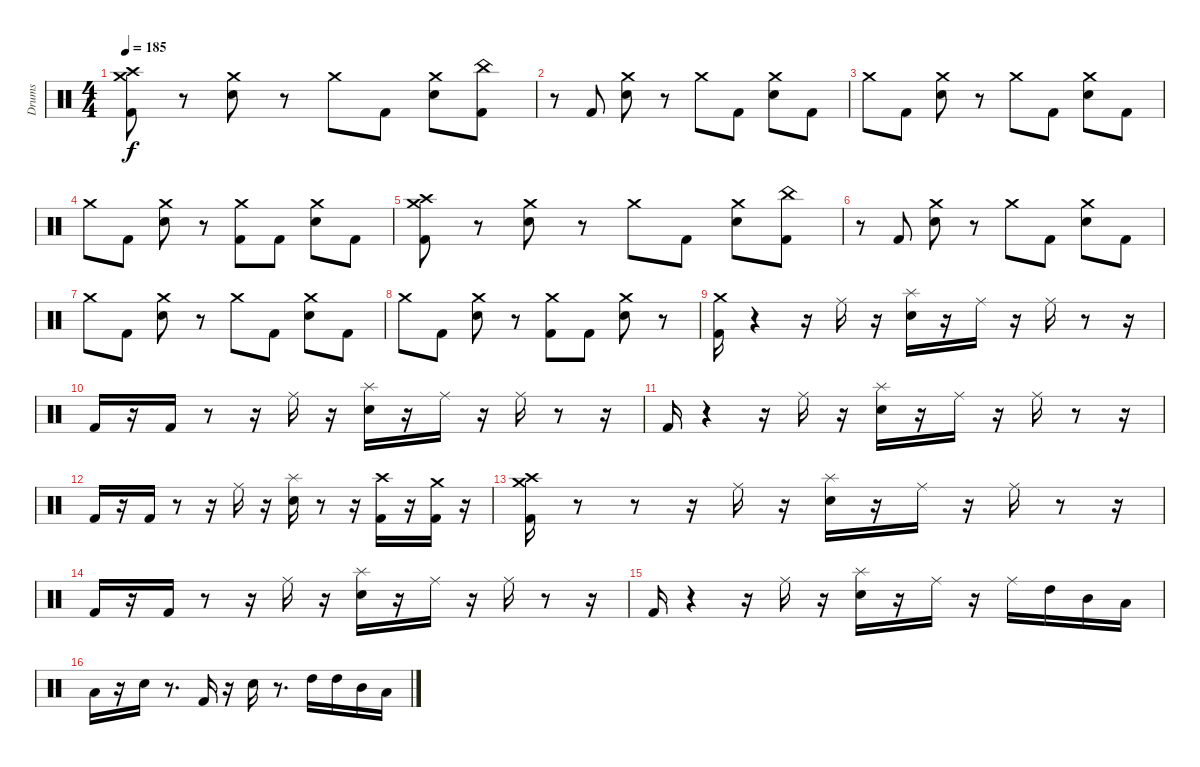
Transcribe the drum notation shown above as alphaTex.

\track ("Drums" "Drums") {instrument percussion}
\staff {score}
\articulation defaults
\ts (4 4)
\tempo 185
\clef neutral
\ks c
("Crash medium (hit)" "Crash high (hit)" "Kick (hit) 2").8{dy f} r.8 ("Crash medium (hit)" "Snare (hit) 2").8 r.8 "Crash medium (hit)".8 "Kick (hit) 2".8 ("Crash medium (hit)" "Snare (hit) 2").8 ("China (hit)" "Kick (hit) 2").8 |
r.8 "Kick (hit) 2".8 ("Crash medium (hit)" "Snare (hit) 2").8 r.8 "Crash medium (hit)".8 "Kick (hit) 2".8 ("Crash medium (hit)" "Snare (hit) 2").8 "Kick (hit) 2".8 |
"Crash medium (hit)".8 "Kick (hit) 2".8 ("Crash medium (hit)" "Snare (hit) 2").8 r.8 "Crash medium (hit)".8 "Kick (hit) 2".8 ("Crash medium (hit)" "Snare (hit) 2").8 "Kick (hit) 2".8 |
"Crash medium (hit)".8 "Kick (hit) 2".8 ("Crash medium (hit)" "Snare (hit) 2").8 r.8 ("Crash medium (hit)" "Kick (hit) 2").8 "Kick (hit) 2".8 ("Crash medium (hit)" "Snare (hit) 2").8 "Kick (hit) 2".8 |
("Crash medium (hit)" "Crash high (hit)" "Kick (hit) 2").8 r.8 ("Crash medium (hit)" "Snare (hit) 2").8 r.8 "Crash medium (hit)".8 "Kick (hit) 2".8 ("Crash medium (hit)" "Snare (hit) 2").8 ("China (hit)" "Kick (hit) 2").8 |
r.8 "Kick (hit) 2".8 ("Crash medium (hit)" "Snare (hit) 2").8 r.8 "Crash medium (hit)".8 "Kick (hit) 2".8 ("Crash medium (hit)" "Snare (hit) 2").8 "Kick (hit) 2".8 |
"Crash medium (hit)".8 "Kick (hit) 2".8 ("Crash medium (hit)" "Snare (hit) 2").8 r.8 "Crash medium (hit)".8 "Kick (hit) 2".8 ("Crash medium (hit)" "Snare (hit) 2").8 "Kick (hit) 2".8 |
"Crash medium (hit)".8 "Kick (hit) 2".8 ("Crash medium (hit)" "Snare (hit) 2").8 r.8 ("Crash medium (hit)" "Kick (hit) 2").8 "Kick (hit) 2".8 ("Crash medium (hit)" "Snare (hit) 2").8 r.8 |
("Crash medium (hit)" "Kick (hit) 2").16 r.4 r.16 "Ride (middle)".16 r.16 ("Splash (hit)" "Snare (hit) 2").16 r.16 "Ride (middle)".16 r.16 "Ride (middle)".16 r.8 r.16 |
"Kick (hit) 2".16 r.16 "Kick (hit) 2".16 r.8 r.16 "Ride (middle)".16 r.16 ("Splash (hit)" "Snare (hit) 2").16 r.16 "Ride (middle)".16 r.16 "Ride (middle)".16 r.8 r.16 |
"Kick (hit) 2".16 r.4 r.16 "Ride (middle)".16 r.16 ("Splash (hit)" "Snare (hit) 2").16 r.16 "Ride (middle)".16 r.16 "Ride (middle)".16 r.8 r.16 |
"Kick (hit) 2".16 r.16 "Kick (hit) 2".16 r.8 r.16 "Ride (middle)".16 r.16 ("Splash (hit)" "Snare (hit) 2").16 r.8 r.16 ("Crash high (hit)" "Kick (hit) 2").16 r.16 ("Crash medium (hit)" "Kick (hit) 2").16 r.16 |
("Crash medium (hit)" "Crash high (hit)" "Kick (hit) 2").16 r.8 r.8 r.16 "Ride (middle)".16 r.16 ("Splash (hit)" "Snare (hit) 2").16 r.16 "Ride (middle)".16 r.16 "Ride (middle)".16 r.8 r.16 |
"Kick (hit) 2".16 r.16 "Kick (hit) 2".16 r.8 r.16 "Ride (middle)".16 r.16 ("Splash (hit)" "Snare (hit) 2").16 r.16 "Ride (middle)".16 r.16 "Ride (middle)".16 r.8 r.16 |
"Kick (hit) 2".16 r.4 r.16 "Ride (middle)".16 r.16 ("Splash (hit)" "Snare (hit) 2").16 r.16 "Ride (middle)".16 r.16 "Ride (middle)".16 "High Tom (hit)".16 "Mid Tom (hit)".16 "Low Tom (hit)".16 |
"Low Tom (hit)".16 r.16 "Snare (hit) 2".16 r.8{d} "Kick (hit) 2".16 r.16 "Snare (hit) 2".16 r.8{d} "High Tom (hit)".16 "High Tom (hit)".16 "Mid Tom (hit)".16 "Low Tom (hit)".16
